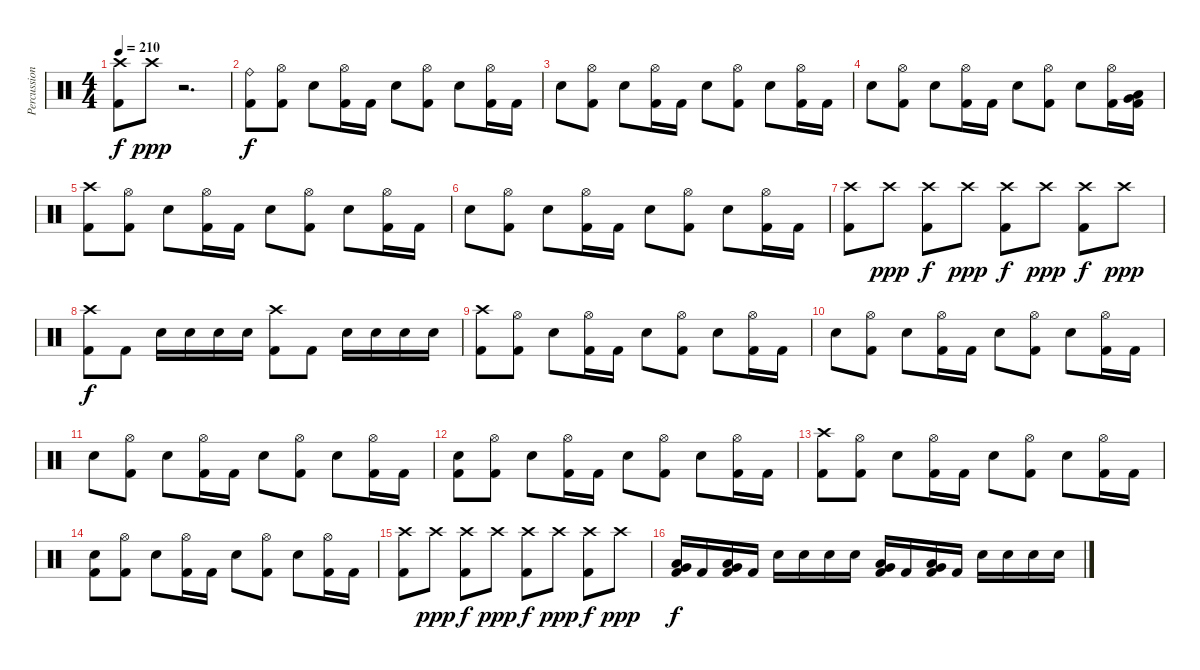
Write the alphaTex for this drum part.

\track ("Percussion" "Percussion") {instrument percussion}
\staff {score}
\articulation defaults
\ts (4 4)
\tempo 210
\clef neutral
\ks c
("Crash high (hit)" "Kick (hit) 2").8{dy f} "Crash high (hit)".8{dy ppp} r.2{d} |
("Ride (bell)" "Kick (hit) 2").8{dy f} ("Hi-Hat (open)" "Kick (hit) 2").8 "Snare (hit) 2".8 ("Hi-Hat (open)" "Kick (hit) 2").16 "Kick (hit) 2".16 "Snare (hit) 2".8 ("Hi-Hat (open)" "Kick (hit) 2").8 "Snare (hit) 2".8 ("Hi-Hat (open)" "Kick (hit) 2").16 "Kick (hit) 2".16 |
"Snare (hit) 2".8 ("Hi-Hat (open)" "Kick (hit) 2").8 "Snare (hit) 2".8 ("Hi-Hat (open)" "Kick (hit) 2").16 "Kick (hit) 2".16 "Snare (hit) 2".8 ("Hi-Hat (open)" "Kick (hit) 2").8 "Snare (hit) 2".8 ("Hi-Hat (open)" "Kick (hit) 2").16 "Kick (hit) 2".16 |
"Snare (hit) 2".8 ("Hi-Hat (open)" "Kick (hit) 2").8 "Snare (hit) 2".8 ("Hi-Hat (open)" "Kick (hit) 2").16 "Kick (hit) 2".16 "Snare (hit) 2".8 ("Hi-Hat (open)" "Kick (hit) 2").8 "Snare (hit) 2".8 ("Hi-Hat (open)" "Kick (hit) 2").16 ("Low Floor Tom (hit)" "Very Low Tom (hit)" "Kick (hit) 2").16 |
("Crash high (hit)" "Kick (hit) 2").8 ("Hi-Hat (open)" "Kick (hit) 2").8 "Snare (hit) 2".8 ("Hi-Hat (open)" "Kick (hit) 2").16 "Kick (hit) 2".16 "Snare (hit) 2".8 ("Hi-Hat (open)" "Kick (hit) 2").8 "Snare (hit) 2".8 ("Hi-Hat (open)" "Kick (hit) 2").16 "Kick (hit) 2".16 |
"Snare (hit) 2".8 ("Hi-Hat (open)" "Kick (hit) 2").8 "Snare (hit) 2".8 ("Hi-Hat (open)" "Kick (hit) 2").16 "Kick (hit) 2".16 "Snare (hit) 2".8 ("Hi-Hat (open)" "Kick (hit) 2").8 "Snare (hit) 2".8 ("Hi-Hat (open)" "Kick (hit) 2").16 "Kick (hit) 2".16 |
("Crash high (hit)" "Kick (hit) 2").8 "Crash high (hit)".8{dy ppp} ("Crash high (hit)" "Kick (hit) 2").8{dy f} "Crash high (hit)".8{dy ppp} ("Crash high (hit)" "Kick (hit) 2").8{dy f} "Crash high (hit)".8{dy ppp} ("Crash high (hit)" "Kick (hit) 2").8{dy f} "Crash high (hit)".8{dy ppp} |
("Crash high (hit)" "Kick (hit) 2").8{dy f} "Kick (hit) 2".8 "Snare (hit) 2".16 "Snare (hit) 2".16 "Snare (hit) 2".16 "Snare (hit) 2".16 ("Crash high (hit)" "Kick (hit) 2").8 "Kick (hit) 2".8 "Snare (hit) 2".16 "Snare (hit) 2".16 "Snare (hit) 2".16 "Snare (hit) 2".16 |
("Crash high (hit)" "Kick (hit) 2").8 ("Hi-Hat (open)" "Kick (hit) 2").8 "Snare (hit) 2".8 ("Hi-Hat (open)" "Kick (hit) 2").16 "Kick (hit) 2".16 "Snare (hit) 2".8 ("Hi-Hat (open)" "Kick (hit) 2").8 "Snare (hit) 2".8 ("Hi-Hat (open)" "Kick (hit) 2").16 "Kick (hit) 2".16 |
"Snare (hit) 2".8 ("Hi-Hat (open)" "Kick (hit) 2").8 "Snare (hit) 2".8 ("Hi-Hat (open)" "Kick (hit) 2").16 "Kick (hit) 2".16 "Snare (hit) 2".8 ("Hi-Hat (open)" "Kick (hit) 2").8 "Snare (hit) 2".8 ("Hi-Hat (open)" "Kick (hit) 2").16 "Kick (hit) 2".16 |
"Snare (hit) 2".8 ("Hi-Hat (open)" "Kick (hit) 2").8 "Snare (hit) 2".8 ("Hi-Hat (open)" "Kick (hit) 2").16 "Kick (hit) 2".16 "Snare (hit) 2".8 ("Hi-Hat (open)" "Kick (hit) 2").8 "Snare (hit) 2".8 ("Hi-Hat (open)" "Kick (hit) 2").16 "Kick (hit) 2".16 |
("Snare (hit) 2" "Kick (hit) 2").8 ("Hi-Hat (open)" "Kick (hit) 2").8 "Snare (hit) 2".8 ("Hi-Hat (open)" "Kick (hit) 2").16 "Kick (hit) 2".16 "Snare (hit) 2".8 ("Hi-Hat (open)" "Kick (hit) 2").8 "Snare (hit) 2".8 ("Hi-Hat (open)" "Kick (hit) 2").16 "Kick (hit) 2".16 |
("Crash high (hit)" "Kick (hit) 2").8 ("Hi-Hat (open)" "Kick (hit) 2").8 "Snare (hit) 2".8 ("Hi-Hat (open)" "Kick (hit) 2").16 "Kick (hit) 2".16 "Snare (hit) 2".8 ("Hi-Hat (open)" "Kick (hit) 2").8 "Snare (hit) 2".8 ("Hi-Hat (open)" "Kick (hit) 2").16 "Kick (hit) 2".16 |
("Snare (hit) 2" "Kick (hit) 2").8 ("Hi-Hat (open)" "Kick (hit) 2").8 "Snare (hit) 2".8 ("Hi-Hat (open)" "Kick (hit) 2").16 "Kick (hit) 2".16 "Snare (hit) 2".8 ("Hi-Hat (open)" "Kick (hit) 2").8 "Snare (hit) 2".8 ("Hi-Hat (open)" "Kick (hit) 2").16 "Kick (hit) 2".16 |
("Crash high (hit)" "Kick (hit) 2").8 "Crash high (hit)".8{dy ppp} ("Crash high (hit)" "Kick (hit) 2").8{dy f} "Crash high (hit)".8{dy ppp} ("Crash high (hit)" "Kick (hit) 2").8{dy f} "Crash high (hit)".8{dy ppp} ("Crash high (hit)" "Kick (hit) 2").8{dy f} "Crash high (hit)".8{dy ppp} |
("Low Tom (hit)" "Very Low Tom (hit)" "Kick (hit) 2").16{dy f} "Kick (hit) 2".16 ("Low Tom (hit)" "Very Low Tom (hit)" "Kick (hit) 2").16 "Kick (hit) 2".16 "Snare (hit) 2".16 "Snare (hit) 2".16 "Snare (hit) 2".16 "Snare (hit) 2".16 ("Very Low Tom (hit)" "Low Floor Tom (hit)" "Kick (hit) 2").16 "Kick (hit) 2".16 ("Very Low Tom (hit)" "Low Floor Tom (hit)" "Kick (hit) 2").16 "Kick (hit) 2".16 "Snare (hit) 2".16 "Snare (hit) 2".16 "Snare (hit) 2".16 "Snare (hit) 2".16
